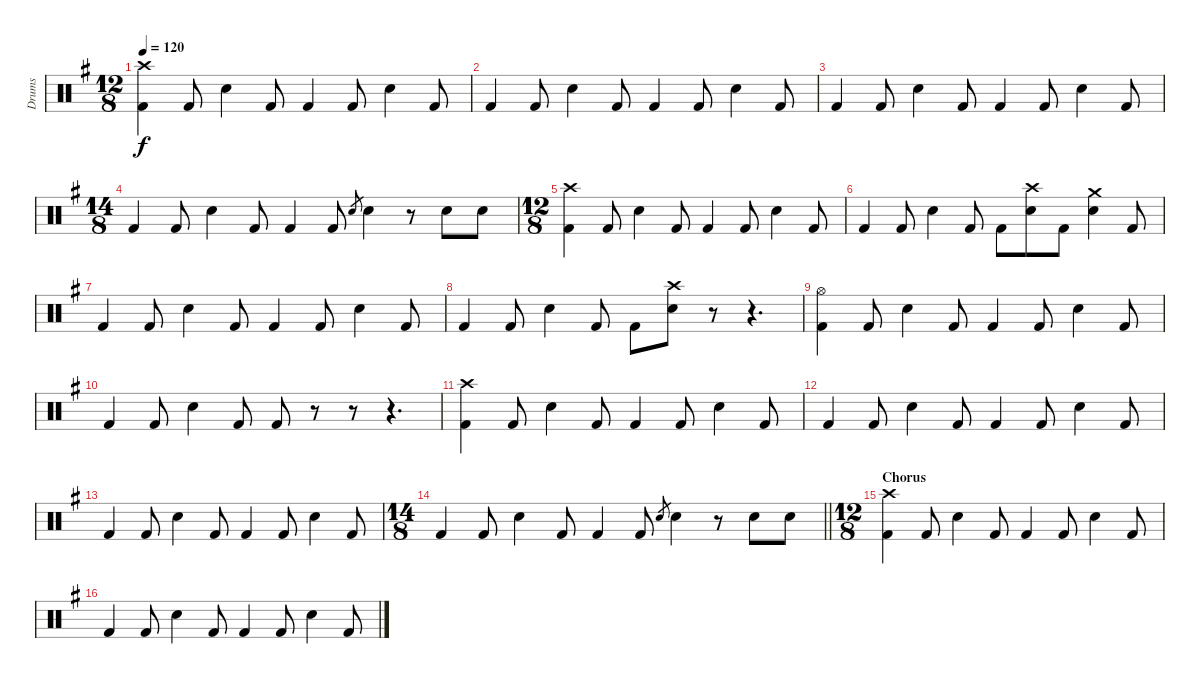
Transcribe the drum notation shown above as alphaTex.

\track ("Drums" "Drums") {instrument percussion}
\staff {score}
\articulation defaults
\ts (12 8)
\tempo 120
\clef neutral
\ks eminor
("Kick (hit) 2" "Crash high (hit)").4{dy f} "Kick (hit) 2".8 "Snare (hit) 2".4 "Kick (hit) 2".8 "Kick (hit) 2".4 "Kick (hit) 2".8 "Snare (hit) 2".4 "Kick (hit) 2".8 |
"Kick (hit) 2".4 "Kick (hit) 2".8 "Snare (hit) 2".4 "Kick (hit) 2".8 "Kick (hit) 2".4 "Kick (hit) 2".8 "Snare (hit) 2".4 "Kick (hit) 2".8 |
"Kick (hit) 2".4 "Kick (hit) 2".8 "Snare (hit) 2".4 "Kick (hit) 2".8 "Kick (hit) 2".4 "Kick (hit) 2".8 "Snare (hit) 2".4 "Kick (hit) 2".8 |
\ts (14 8)
"Kick (hit) 2".4 "Kick (hit) 2".8 "Snare (hit) 2".4 "Kick (hit) 2".8 "Kick (hit) 2".4 "Kick (hit) 2".8 "Snare (hit) 2".8{gr} "Snare (hit) 2".4 r.8 "Snare (hit) 2".8 "Snare (hit) 2".8 |
\ts (12 8)
("Kick (hit) 2" "Crash high (hit)").4 "Kick (hit) 2".8 "Snare (hit) 2".4 "Kick (hit) 2".8 "Kick (hit) 2".4 "Kick (hit) 2".8 "Snare (hit) 2".4 "Kick (hit) 2".8 |
"Kick (hit) 2".4 "Kick (hit) 2".8 "Snare (hit) 2".4 "Kick (hit) 2".8 "Kick (hit) 2".8 ("Snare (hit) 2" "Crash high (hit)").8 "Kick (hit) 2".8 ("Snare (hit) 2" "Crash medium (hit)").4 "Kick (hit) 2".8 |
"Kick (hit) 2".4 "Kick (hit) 2".8 "Snare (hit) 2".4 "Kick (hit) 2".8 "Kick (hit) 2".4 "Kick (hit) 2".8 "Snare (hit) 2".4 "Kick (hit) 2".8 |
"Kick (hit) 2".4 "Kick (hit) 2".8 "Snare (hit) 2".4 "Kick (hit) 2".8 "Kick (hit) 2".8 ("Snare (hit) 2" "Crash high (hit)").8 r.8 r.4{d} |
("Kick (hit) 2" "Hi-Hat (open)").4 "Kick (hit) 2".8 "Snare (hit) 2".4 "Kick (hit) 2".8 "Kick (hit) 2".4 "Kick (hit) 2".8 "Snare (hit) 2".4 "Kick (hit) 2".8 |
"Kick (hit) 2".4 "Kick (hit) 2".8 "Snare (hit) 2".4 "Kick (hit) 2".8 "Kick (hit) 2".8 r.8 r.8 r.4{d} |
("Kick (hit) 2" "Crash high (hit)").4 "Kick (hit) 2".8 "Snare (hit) 2".4 "Kick (hit) 2".8 "Kick (hit) 2".4 "Kick (hit) 2".8 "Snare (hit) 2".4 "Kick (hit) 2".8 |
"Kick (hit) 2".4 "Kick (hit) 2".8 "Snare (hit) 2".4 "Kick (hit) 2".8 "Kick (hit) 2".4 "Kick (hit) 2".8 "Snare (hit) 2".4 "Kick (hit) 2".8 |
"Kick (hit) 2".4 "Kick (hit) 2".8 "Snare (hit) 2".4 "Kick (hit) 2".8 "Kick (hit) 2".4 "Kick (hit) 2".8 "Snare (hit) 2".4 "Kick (hit) 2".8 |
\ts (14 8)
\barLineRight lightlight "Kick (hit) 2".4 "Kick (hit) 2".8 "Snare (hit) 2".4 "Kick (hit) 2".8 "Kick (hit) 2".4 "Kick (hit) 2".8 "Snare (hit) 2".8{gr} "Snare (hit) 2".4
r.8 "Snare (hit) 2".8 "Snare (hit) 2".8 |
\ts (12 8)
\section ("" "Chorus")
("Kick (hit) 2" "Crash high (hit)").4 "Kick (hit) 2".8 "Snare (hit) 2".4 "Kick (hit) 2".8 "Kick (hit) 2".4 "Kick (hit) 2".8 "Snare (hit) 2".4 "Kick (hit) 2".8 |
"Kick (hit) 2".4 "Kick (hit) 2".8 "Snare (hit) 2".4 "Kick (hit) 2".8 "Kick (hit) 2".4 "Kick (hit) 2".8 "Snare (hit) 2".4 "Kick (hit) 2".8
